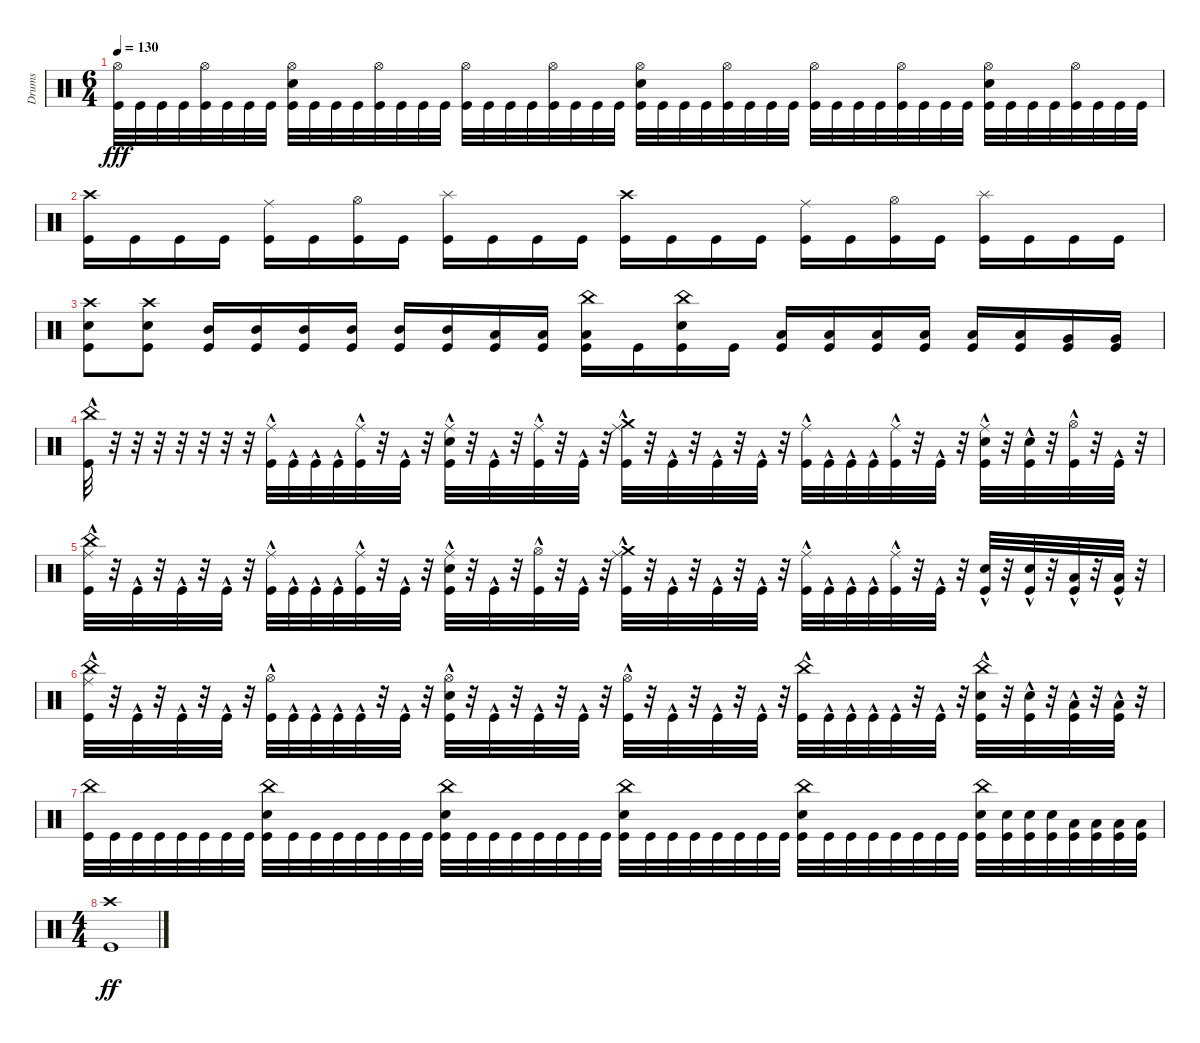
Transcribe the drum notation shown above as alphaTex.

\track ("Drums" "Drums") {instrument percussion}
\staff {score}
\articulation defaults
\ts (6 4)
\tempo 130
\clef neutral
\ks c
("Hi-Hat (open)" "Kick (hit)").32{dy fff} "Kick (hit)".32 "Kick (hit)".32 "Kick (hit)".32 ("Hi-Hat (open)" "Kick (hit)").32 "Kick (hit)".32 "Kick (hit)".32 "Kick (hit)".32 ("Hi-Hat (open)" "Snare (hit) 2" "Kick (hit)").32 "Kick (hit)".32 "Kick (hit)".32 "Kick (hit)".32 ("Hi-Hat (open)" "Kick (hit)").32 "Kick (hit)".32 "Kick (hit)".32 "Kick (hit)".32 ("Hi-Hat (open)" "Kick (hit)").32 "Kick (hit)".32 "Kick (hit)".32 "Kick (hit)".32 ("Hi-Hat (open)" "Kick (hit)").32 "Kick (hit)".32 "Kick (hit)".32 "Kick (hit)".32 ("Hi-Hat (open)" "Snare (hit) 2" "Kick (hit)").32 "Kick (hit)".32 "Kick (hit)".32 "Kick (hit)".32 ("Hi-Hat (open)" "Kick (hit)").32 "Kick (hit)".32 "Kick (hit)".32 "Kick (hit)".32 ("Hi-Hat (open)" "Kick (hit)").32 "Kick (hit)".32 "Kick (hit)".32 "Kick (hit)".32 ("Hi-Hat (open)" "Kick (hit)").32 "Kick (hit)".32 "Kick (hit)".32 "Kick (hit)".32 ("Hi-Hat (open)" "Snare (hit) 2" "Kick (hit)").32 "Kick (hit)".32 "Kick (hit)".32 "Kick (hit)".32 ("Hi-Hat (open)" "Kick (hit)").32 "Kick (hit)".32 "Kick (hit)".32 "Kick (hit)".32 |
("Crash high (hit)" "Kick (hit)").16 "Kick (hit)".16 "Kick (hit)".16 "Kick (hit)".16 ("Ride (middle)" "Kick (hit)").16 "Kick (hit)".16 ("Hi-Hat (open)" "Kick (hit)").16 "Kick (hit)".16 ("Splash (hit)" "Kick (hit)").16 "Kick (hit)".16 "Kick (hit)".16 "Kick (hit)".16 ("Crash high (hit)" "Kick (hit)").16 "Kick (hit)".16 "Kick (hit)".16 "Kick (hit)".16 ("Ride (middle)" "Kick (hit)").16 "Kick (hit)".16 ("Hi-Hat (open)" "Kick (hit)").16 "Kick (hit)".16 ("Splash (hit)" "Kick (hit)").16 "Kick (hit)".16 "Kick (hit)".16 "Kick (hit)".16 |
("Crash high (hit)" "Snare (hit) 2" "Kick (hit)").8 ("Crash high (hit)" "Snare (hit) 2" "Kick (hit)").8 ("Mid Tom (hit)" "Kick (hit)").16 ("Mid Tom (hit)" "Kick (hit)").16 ("Mid Tom (hit)" "Kick (hit)").16 ("Mid Tom (hit)" "Kick (hit)").16 ("Mid Tom (hit)" "Kick (hit)").16 ("Mid Tom (hit)" "Kick (hit)").16 ("Low Tom (hit)" "Kick (hit)").16 ("Low Tom (hit)" "Kick (hit)").16 ("China (hit)" "Low Tom (hit)" "Kick (hit)").16 "Kick (hit)".16 ("China (hit)" "Snare (hit) 2" "Kick (hit)").16 "Kick (hit)".16 ("Low Tom (hit)" "Kick (hit)").16 ("Low Tom (hit)" "Kick (hit)").16 ("Low Tom (hit)" "Kick (hit)").16 ("Low Tom (hit)" "Kick (hit)").16 ("Low Tom (hit)" "Kick (hit)").16 ("Low Tom (hit)" "Kick (hit)").16 ("Very Low Tom (hit)" "Kick (hit)").16 ("Very Low Tom (hit)" "Kick (hit)").16 |
("China (hit)" "Kick (hit)"{hac}).32 r.32 r.32 r.32 r.32 r.32 r.32 r.32 ("Ride (middle)" "Kick (hit)"{hac}).32 "Kick (hit)"{hac}.32 "Kick (hit)"{hac}.32 "Kick (hit)"{hac}.32 ("Ride (middle)" "Kick (hit)"{hac}).32 r.32 "Kick (hit)"{hac}.32 r.32 ("Ride (middle)" "Snare (hit) 2" "Kick (hit)"{hac}).32 r.32 "Kick (hit)"{hac}.32 r.32 ("Ride (middle)" "Kick (hit)"{hac}).32 r.32 "Kick (hit)"{hac}.32 r.32 ("Crash medium (hit)" "Ride (middle)" "Kick (hit)"{hac}).32 r.32 "Kick (hit)"{hac}.32 r.32 "Kick (hit)"{hac}.32 r.32 "Kick (hit)"{hac}.32 r.32 ("Ride (middle)" "Kick (hit)"{hac}).32 "Kick (hit)"{hac}.32 "Kick (hit)"{hac}.32 "Kick (hit)"{hac}.32 ("Ride (middle)" "Kick (hit)"{hac}).32 r.32 "Kick (hit)"{hac}.32 r.32 ("Ride (middle)" "Snare (hit) 2" "Kick (hit)"{hac}).32 r.32 ("Snare (hit) 2" "Kick (hit)"{hac}).32 r.32 ("Hi-Hat (open)" "Kick (hit)"{hac}).32 r.32 "Kick (hit)"{hac}.32 r.32 |
("China (hit)" "Ride (middle)" "Kick (hit)"{hac}).32 r.32 "Kick (hit)"{hac}.32 r.32 "Kick (hit)"{hac}.32 r.32 "Kick (hit)"{hac}.32 r.32 ("Ride (middle)" "Kick (hit)"{hac}).32 "Kick (hit)"{hac}.32 "Kick (hit)"{hac}.32 "Kick (hit)"{hac}.32 ("Ride (middle)" "Kick (hit)"{hac}).32 r.32 "Kick (hit)"{hac}.32 r.32 ("Ride (middle)" "Snare (hit) 2" "Kick (hit)"{hac}).32 r.32 "Kick (hit)"{hac}.32 r.32 ("Hi-Hat (open)" "Kick (hit)"{hac}).32 r.32 "Kick (hit)"{hac}.32 r.32 ("Crash medium (hit)" "Ride (middle)" "Kick (hit)"{hac}).32 r.32 "Kick (hit)"{hac}.32 r.32 "Kick (hit)"{hac}.32 r.32 "Kick (hit)"{hac}.32 r.32 ("Ride (middle)" "Kick (hit)"{hac}).32 "Kick (hit)"{hac}.32 "Kick (hit)"{hac}.32 "Kick (hit)"{hac}.32 ("Ride (middle)" "Kick (hit)"{hac}).32 r.32 "Kick (hit)"{hac}.32 r.32 ("Snare (hit) 2" "Kick (hit)"{hac}).32 r.32 ("Snare (hit) 2" "Kick (hit)"{hac}).32 r.32 ("Low Tom (hit)" "Kick (hit)"{hac}).32 r.32 ("Low Tom (hit)" "Kick (hit)"{hac}).32 r.32 |
("China (hit)" "Ride (middle)" "Kick (hit)"{hac}).32 r.32 "Kick (hit)"{hac}.32 r.32 "Kick (hit)"{hac}.32 r.32 "Kick (hit)"{hac}.32 r.32 ("Hi-Hat (open)" "Kick (hit)"{hac}).32 "Kick (hit)"{hac}.32 "Kick (hit)"{hac}.32 "Kick (hit)"{hac}.32 "Kick (hit)"{hac}.32 r.32 "Kick (hit)"{hac}.32 r.32 ("Hi-Hat (open)" "Snare (hit) 2" "Kick (hit)"{hac}).32 r.32 "Kick (hit)"{hac}.32 r.32 "Kick (hit)"{hac}.32 r.32 "Kick (hit)"{hac}.32 r.32 ("Hi-Hat (open)" "Kick (hit)"{hac}).32 r.32 "Kick (hit)"{hac}.32 r.32 "Kick (hit)"{hac}.32 r.32 "Kick (hit)"{hac}.32 r.32 ("China (hit)" "Kick (hit)"{hac}).32 "Kick (hit)"{hac}.32 "Kick (hit)"{hac}.32 "Kick (hit)"{hac}.32 "Kick (hit)"{hac}.32 r.32 "Kick (hit)"{hac}.32 r.32 ("China (hit)" "Snare (hit) 2" "Kick (hit)"{hac}).32 r.32 ("Snare (hit) 2" "Kick (hit)"{hac}).32 r.32 ("Low Tom (hit)" "Kick (hit)"{hac}).32 r.32 ("Low Tom (hit)" "Kick (hit)"{hac}).32 r.32 |
("China (hit)" "Kick (hit)").32 "Kick (hit)".32 "Kick (hit)".32 "Kick (hit)".32 "Kick (hit)".32 "Kick (hit)".32 "Kick (hit)".32 "Kick (hit)".32 ("China (hit)" "Snare (hit) 2" "Kick (hit)").32 "Kick (hit)".32 "Kick (hit)".32 "Kick (hit)".32 "Kick (hit)".32 "Kick (hit)".32 "Kick (hit)".32 "Kick (hit)".32 ("China (hit)" "Snare (hit) 2" "Kick (hit)").32 "Kick (hit)".32 "Kick (hit)".32 "Kick (hit)".32 "Kick (hit)".32 "Kick (hit)".32 "Kick (hit)".32 "Kick (hit)".32 ("China (hit)" "Snare (hit) 2" "Kick (hit)").32 "Kick (hit)".32 "Kick (hit)".32 "Kick (hit)".32 "Kick (hit)".32 "Kick (hit)".32 "Kick (hit)".32 "Kick (hit)".32 ("China (hit)" "Snare (hit) 2" "Kick (hit)").32 "Kick (hit)".32 "Kick (hit)".32 "Kick (hit)".32 "Kick (hit)".32 "Kick (hit)".32 "Kick (hit)".32 "Kick (hit)".32 ("China (hit)" "Snare (hit) 2" "Kick (hit)").32 ("Snare (hit) 2" "Kick (hit)").32 ("Snare (hit) 2" "Kick (hit)").32 ("Snare (hit) 2" "Kick (hit)").32 ("Low Tom (hit)" "Kick (hit)").32 ("Low Tom (hit)" "Kick (hit)").32 ("Low Tom (hit)" "Kick (hit)").32 ("Low Tom (hit)" "Kick (hit)").32 |
\ts (4 4)
("Crash high (hit)" "Kick (hit)").1{dy ff}
